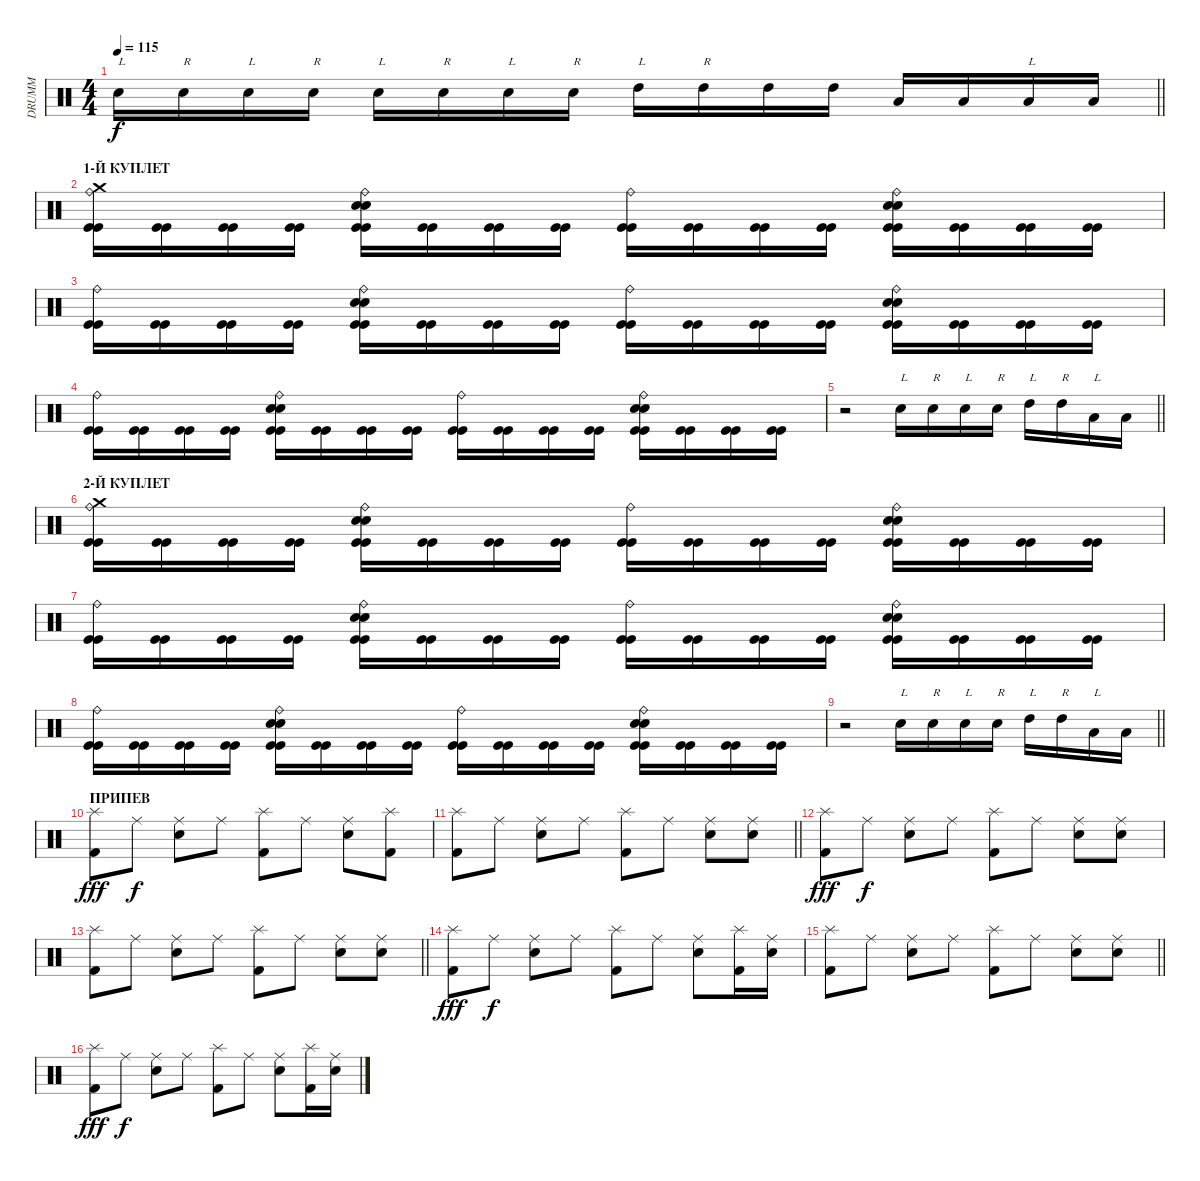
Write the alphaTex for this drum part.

\track ("DRUMM" "DRUMM") {instrument percussion}
\staff {score}
\articulation defaults
\ts (4 4)
\tempo 115
\clef neutral
\barLineRight lightlight
\ks c "Electric Snare (hit)".16{txt "L" dy f} "Electric Snare (hit)".16{txt "R"} "Electric Snare (hit)".16{txt "L"} "Electric Snare (hit)".16{txt "R"} "Electric Snare (hit)".16{txt "L"} "Electric Snare (hit)".16{txt "R"} "Electric Snare (hit)".16{txt "L"} "Electric Snare (hit)".16{txt "R"} "High Tom (hit)".16{txt "L"} "High Tom (hit)".16{txt "R"} "High Tom (hit)".16 "High Tom (hit)".16 "Low Tom (hit)".16 "Low Tom (hit)".16 "Low Tom (hit)".16{txt "L"} "Low Tom (hit)".16
|
\section ("" "1-Й КУПЛЕТ")
("Ride (bell)" "Crash medium (hit)" "Kick (hit)" "Kick (hit)").16 ("Kick (hit)" "Kick (hit)").16 ("Kick (hit)" "Kick (hit)").16 ("Kick (hit)" "Kick (hit)").16 ("Ride (bell)" "Snare (hit) 2" "Snare (hit) 2" "Kick (hit)" "Kick (hit)").16 ("Kick (hit)" "Kick (hit)").16 ("Kick (hit)" "Kick (hit)").16 ("Kick (hit)" "Kick (hit)").16 ("Ride (bell)" "Kick (hit)" "Kick (hit)").16 ("Kick (hit)" "Kick (hit)").16 ("Kick (hit)" "Kick (hit)").16 ("Kick (hit)" "Kick (hit)").16 ("Ride (bell)" "Snare (hit) 2" "Snare (hit) 2" "Kick (hit)" "Kick (hit)").16 ("Kick (hit)" "Kick (hit)").16 ("Kick (hit)" "Kick (hit)").16 ("Kick (hit)" "Kick (hit)").16 |
("Ride (bell)" "Kick (hit)" "Kick (hit)").16 ("Kick (hit)" "Kick (hit)").16 ("Kick (hit)" "Kick (hit)").16 ("Kick (hit)" "Kick (hit)").16 ("Ride (bell)" "Snare (hit) 2" "Snare (hit) 2" "Kick (hit)" "Kick (hit)").16 ("Kick (hit)" "Kick (hit)").16 ("Kick (hit)" "Kick (hit)").16 ("Kick (hit)" "Kick (hit)").16 ("Ride (bell)" "Kick (hit)" "Kick (hit)").16 ("Kick (hit)" "Kick (hit)").16 ("Kick (hit)" "Kick (hit)").16 ("Kick (hit)" "Kick (hit)").16 ("Ride (bell)" "Snare (hit) 2" "Snare (hit) 2" "Kick (hit)" "Kick (hit)").16 ("Kick (hit)" "Kick (hit)").16 ("Kick (hit)" "Kick (hit)").16 ("Kick (hit)" "Kick (hit)").16 |
("Ride (bell)" "Kick (hit)" "Kick (hit)").16 ("Kick (hit)" "Kick (hit)").16 ("Kick (hit)" "Kick (hit)").16 ("Kick (hit)" "Kick (hit)").16 ("Ride (bell)" "Snare (hit) 2" "Snare (hit) 2" "Kick (hit)" "Kick (hit)").16 ("Kick (hit)" "Kick (hit)").16 ("Kick (hit)" "Kick (hit)").16 ("Kick (hit)" "Kick (hit)").16 ("Ride (bell)" "Kick (hit)" "Kick (hit)").16 ("Kick (hit)" "Kick (hit)").16 ("Kick (hit)" "Kick (hit)").16 ("Kick (hit)" "Kick (hit)").16 ("Ride (bell)" "Snare (hit) 2" "Snare (hit) 2" "Kick (hit)" "Kick (hit)").16 ("Kick (hit)" "Kick (hit)").16 ("Kick (hit)" "Kick (hit)").16 ("Kick (hit)" "Kick (hit)").16 |
\barLineRight lightlight
r.2 "Electric Snare (hit)".16{txt "L"} "Electric Snare (hit)".16{txt "R"} "Electric Snare (hit)".16{txt "L"} "Electric Snare (hit)".16{txt "R"} "High Tom (hit)".16{txt "L"} "High Tom (hit)".16{txt "R"} "Low Tom (hit)".16{txt "L"} "Low Tom (hit)".16 |
\section ("" "2-Й КУПЛЕТ")
("Ride (bell)" "Crash medium (hit)" "Kick (hit)" "Kick (hit)").16 ("Kick (hit)" "Kick (hit)").16 ("Kick (hit)" "Kick (hit)").16 ("Kick (hit)" "Kick (hit)").16 ("Ride (bell)" "Snare (hit) 2" "Snare (hit) 2" "Kick (hit)" "Kick (hit)").16 ("Kick (hit)" "Kick (hit)").16 ("Kick (hit)" "Kick (hit)").16 ("Kick (hit)" "Kick (hit)").16 ("Ride (bell)" "Kick (hit)" "Kick (hit)").16 ("Kick (hit)" "Kick (hit)").16 ("Kick (hit)" "Kick (hit)").16 ("Kick (hit)" "Kick (hit)").16 ("Ride (bell)" "Snare (hit) 2" "Snare (hit) 2" "Kick (hit)" "Kick (hit)").16 ("Kick (hit)" "Kick (hit)").16 ("Kick (hit)" "Kick (hit)").16 ("Kick (hit)" "Kick (hit)").16 |
("Ride (bell)" "Kick (hit)" "Kick (hit)").16 ("Kick (hit)" "Kick (hit)").16 ("Kick (hit)" "Kick (hit)").16 ("Kick (hit)" "Kick (hit)").16 ("Ride (bell)" "Snare (hit) 2" "Snare (hit) 2" "Kick (hit)" "Kick (hit)").16 ("Kick (hit)" "Kick (hit)").16 ("Kick (hit)" "Kick (hit)").16 ("Kick (hit)" "Kick (hit)").16 ("Ride (bell)" "Kick (hit)" "Kick (hit)").16 ("Kick (hit)" "Kick (hit)").16 ("Kick (hit)" "Kick (hit)").16 ("Kick (hit)" "Kick (hit)").16 ("Ride (bell)" "Snare (hit) 2" "Snare (hit) 2" "Kick (hit)" "Kick (hit)").16 ("Kick (hit)" "Kick (hit)").16 ("Kick (hit)" "Kick (hit)").16 ("Kick (hit)" "Kick (hit)").16 |
("Ride (bell)" "Kick (hit)" "Kick (hit)").16 ("Kick (hit)" "Kick (hit)").16 ("Kick (hit)" "Kick (hit)").16 ("Kick (hit)" "Kick (hit)").16 ("Ride (bell)" "Snare (hit) 2" "Snare (hit) 2" "Kick (hit)" "Kick (hit)").16 ("Kick (hit)" "Kick (hit)").16 ("Kick (hit)" "Kick (hit)").16 ("Kick (hit)" "Kick (hit)").16 ("Ride (bell)" "Kick (hit)" "Kick (hit)").16 ("Kick (hit)" "Kick (hit)").16 ("Kick (hit)" "Kick (hit)").16 ("Kick (hit)" "Kick (hit)").16 ("Ride (bell)" "Snare (hit) 2" "Snare (hit) 2" "Kick (hit)" "Kick (hit)").16 ("Kick (hit)" "Kick (hit)").16 ("Kick (hit)" "Kick (hit)").16 ("Kick (hit)" "Kick (hit)").16 |
\barLineRight lightlight
r.2 "Electric Snare (hit)".16{txt "L"} "Electric Snare (hit)".16{txt "R"} "Electric Snare (hit)".16{txt "L"} "Electric Snare (hit)".16{txt "R"} "High Tom (hit)".16{txt "L"} "High Tom (hit)".16{txt "R"} "Low Tom (hit)".16{txt "L"} "Low Tom (hit)".16 |
\section ("" "ПРИПЕВ")
("Kick (hit) 2" "Splash (hit)").8{dy fff} "Ride (middle)".8{dy f} ("Ride (middle)" "Electric Snare (hit)").8 "Ride (middle)".8 ("Kick (hit) 2" "Splash (hit)").8 "Ride (middle)".8 ("Ride (middle)" "Electric Snare (hit)").8 ("Kick (hit) 2" "Splash (hit)").8 |
\barLineRight lightlight
("Kick (hit) 2" "Splash (hit)").8 "Ride (middle)".8 ("Ride (middle)" "Electric Snare (hit)").8 "Ride (middle)".8 ("Kick (hit) 2" "Splash (hit)").8 "Ride (middle)".8 ("Ride (middle)" "Electric Snare (hit)").8 ("Ride (middle)" "Electric Snare (hit)").8 |
("Kick (hit) 2" "Splash (hit)").8{dy fff} "Ride (middle)".8{dy f} ("Ride (middle)" "Electric Snare (hit)").8 "Ride (middle)".8 ("Kick (hit) 2" "Splash (hit)").8 "Ride (middle)".8 ("Ride (middle)" "Electric Snare (hit)").8 ("Ride (middle)" "Electric Snare (hit)").8 |
\barLineRight lightlight
("Kick (hit) 2" "Splash (hit)").8 "Ride (middle)".8 ("Ride (middle)" "Electric Snare (hit)").8 "Ride (middle)".8 ("Kick (hit) 2" "Splash (hit)").8 "Ride (middle)".8 ("Ride (middle)" "Electric Snare (hit)").8 ("Ride (middle)" "Electric Snare (hit)").8 |
("Kick (hit) 2" "Splash (hit)").8{dy fff} "Ride (middle)".8{dy f} ("Ride (middle)" "Electric Snare (hit)").8 "Ride (middle)".8 ("Kick (hit) 2" "Splash (hit)").8 "Ride (middle)".8 ("Ride (middle)" "Electric Snare (hit)").8 ("Kick (hit) 2" "Splash (hit)").16 ("Ride (middle)" "Electric Snare (hit)").16 |
\barLineRight lightlight
("Kick (hit) 2" "Splash (hit)").8 "Ride (middle)".8 ("Ride (middle)" "Electric Snare (hit)").8 "Ride (middle)".8 ("Kick (hit) 2" "Splash (hit)").8 "Ride (middle)".8 ("Ride (middle)" "Electric Snare (hit)").8 ("Ride (middle)" "Electric Snare (hit)").8 |
("Kick (hit) 2" "Splash (hit)").8{dy fff} "Ride (middle)".8{dy f} ("Ride (middle)" "Electric Snare (hit)").8 "Ride (middle)".8 ("Kick (hit) 2" "Splash (hit)").8 "Ride (middle)".8 ("Ride (middle)" "Electric Snare (hit)").8 ("Kick (hit) 2" "Splash (hit)").16 ("Ride (middle)" "Electric Snare (hit)").16
